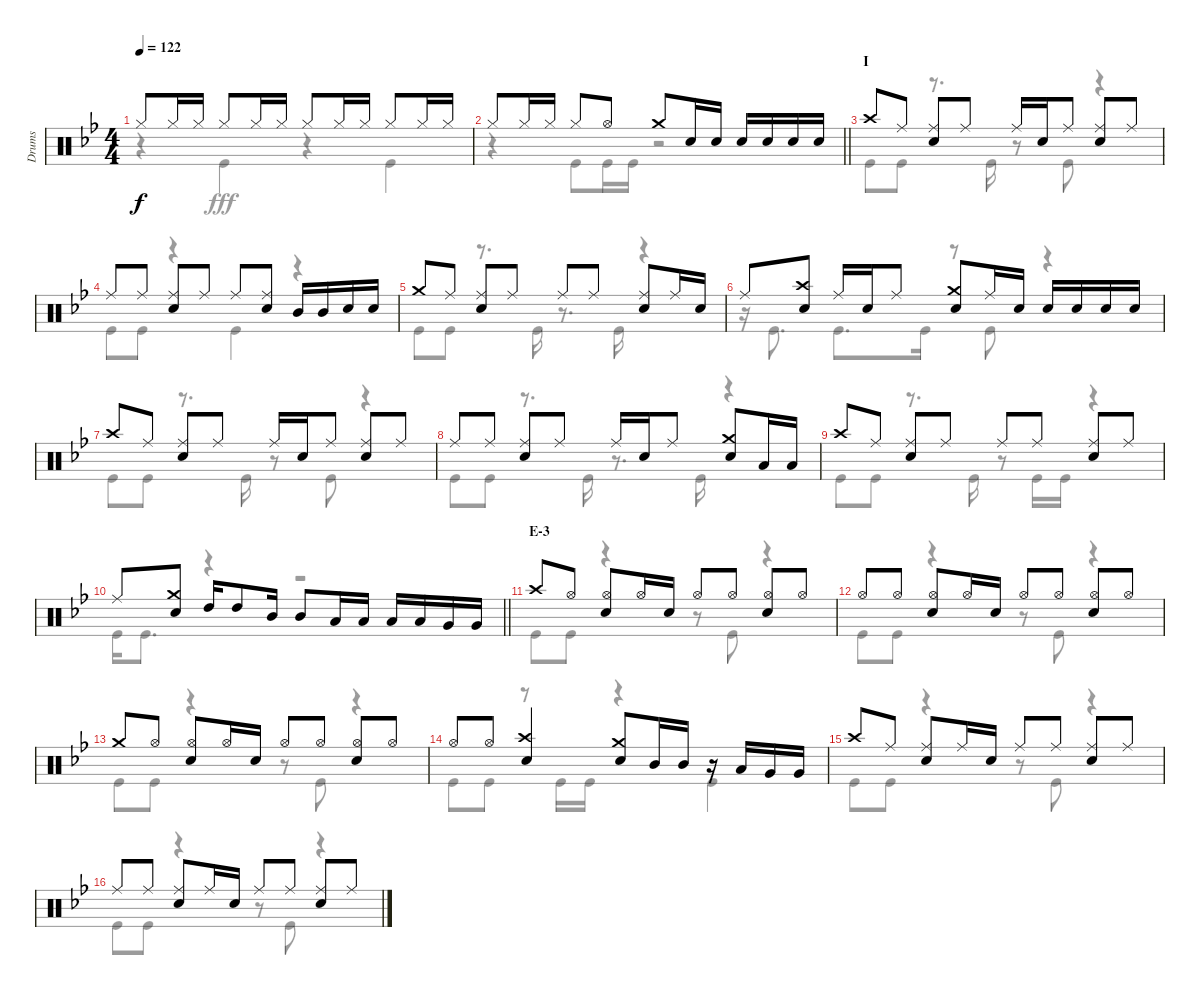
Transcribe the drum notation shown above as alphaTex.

\track ("Drums" "Drums") {instrument percussion}
\staff {score}
\articulation defaults
\voice
\ts (4 4)
\tempo 122
\clef neutral
\ks bb "Hi-Hat (closed)".8{dy f} "Hi-Hat (closed)".16 "Hi-Hat (closed)".16 "Hi-Hat (closed)".8 "Hi-Hat (closed)".16 "Hi-Hat (closed)".16 "Hi-Hat (closed)".8 "Hi-Hat (closed)".16 "Hi-Hat (closed)".16 "Hi-Hat (closed)".8 "Hi-Hat (closed)".16 "Hi-Hat (closed)".16
|
\barLineRight lightlight "Hi-Hat (closed)".8 "Hi-Hat (closed)".16 "Hi-Hat (closed)".16 "Hi-Hat (closed)".8 "Hi-Hat (open)".8 "Crash medium (hit)".8 "Snare (hit) 2".16 "Snare (hit) 2".16 "Snare (hit) 2".16 "Snare (hit) 2".16 "Snare (hit) 2".16 "Snare (hit) 2".16
|
\section ("" "I")
"Crash high (hit)".8 "Ride (middle)".8 ("Ride (middle)" "Snare (hit) 2").8 "Ride (middle)".8 "Ride (middle)".16 "Snare (hit) 2".16 "Ride (middle)".8 ("Ride (middle)" "Snare (hit) 2").8 "Ride (middle)".8 |
"Ride (middle)".8 "Ride (middle)".8 ("Ride (middle)" "Snare (hit) 2").8 "Ride (middle)".8 "Ride (middle)".8 ("Ride (middle)" "Snare (hit) 2").8 "Mid Tom (hit)".16 "Mid Tom (hit)".16 "Snare (hit) 2".16 "Snare (hit) 2".16 |
"Crash medium (hit)".8 "Ride (middle)".8 ("Ride (middle)" "Snare (hit) 2").8 "Ride (middle)".8 "Ride (middle)".8 "Ride (middle)".8 ("Ride (middle)" "Snare (hit) 2").8 "Ride (middle)".16 "Snare (hit) 2".16 |
"Ride (middle)".8 ("Crash high (hit)" "Snare (hit) 2").8 "Ride (middle)".16 "Snare (hit) 2".16 "Ride (middle)".8 ("Crash medium (hit)" "Snare (hit) 2").8 "Ride (middle)".16 "Snare (hit) 2".16 "Snare (hit) 2".16 "Snare (hit) 2".16 "Snare (hit) 2".16 "Snare (hit) 2".16 |
"Crash high (hit)".8 "Ride (middle)".8 ("Ride (middle)" "Snare (hit) 2").8 "Ride (middle)".8 "Ride (middle)".16 "Snare (hit) 2".16 "Ride (middle)".8 ("Ride (middle)" "Snare (hit) 2").8 "Ride (middle)".8 |
"Ride (middle)".8 "Ride (middle)".8 ("Ride (middle)" "Snare (hit) 2").8 "Ride (middle)".8 "Ride (middle)".16 "Snare (hit) 2".16 "Ride (middle)".8 ("Crash medium (hit)" "Snare (hit) 2").8 "Low Tom (hit)".16 "Low Tom (hit)".16 |
"Crash high (hit)".8 "Ride (middle)".8 ("Ride (middle)" "Snare (hit) 2").8 "Ride (middle)".8 "Ride (middle)".8 "Ride (middle)".8 ("Ride (middle)" "Snare (hit) 2").8 "Ride (middle)".8 |
\barLineRight lightlight "Ride (middle)".8
("Crash medium (hit)" "Snare (hit) 2").8 "High Tom (hit)".16 "High Tom (hit)".8 "Mid Tom (hit)".16 "Mid Tom (hit)".8 "Low Tom (hit)".16 "Low Tom (hit)".16 "Low Tom (hit)".16 "Low Tom (hit)".16 "Very Low Tom (hit)".16 "Very Low Tom (hit)".16 |
\section ("" "E-3")
"Crash high (hit)".8 "Hi-Hat (open)".8 ("Hi-Hat (open)" "Snare (hit) 2").8 "Hi-Hat (open)".16 "Snare (hit) 2".16 "Hi-Hat (open)".8 "Hi-Hat (open)".8 ("Hi-Hat (open)" "Snare (hit) 2").8 "Hi-Hat (open)".8 |
"Hi-Hat (open)".8 "Hi-Hat (open)".8 ("Hi-Hat (open)" "Snare (hit) 2").8 "Hi-Hat (open)".16 "Snare (hit) 2".16 "Hi-Hat (open)".8 "Hi-Hat (open)".8 ("Hi-Hat (open)" "Snare (hit) 2").8 "Hi-Hat (open)".8 |
"Crash medium (hit)".8 "Hi-Hat (open)".8 ("Hi-Hat (open)" "Snare (hit) 2").8 "Hi-Hat (open)".16 "Snare (hit) 2".16 "Hi-Hat (open)".8 "Hi-Hat (open)".8 ("Hi-Hat (open)" "Snare (hit) 2").8 "Hi-Hat (open)".8 |
"Hi-Hat (open)".8 "Hi-Hat (open)".8 ("Crash high (hit)" "Snare (hit) 2").4 ("Crash medium (hit)" "Snare (hit) 2").8 "Mid Tom (hit)".16 "Mid Tom (hit)".16 r.16 "Low Tom (hit)".16 "Very Low Tom (hit)".16 "Very Low Tom (hit)".16 |
"Crash high (hit)".8 "Ride (middle)".8 ("Ride (middle)" "Snare (hit) 2").8 "Ride (middle)".16 "Snare (hit) 2".16 "Ride (middle)".8 "Ride (middle)".8 ("Ride (middle)" "Snare (hit) 2").8 "Ride (middle)".8 |
"Ride (middle)".8 "Ride (middle)".8 ("Ride (middle)" "Snare (hit) 2").8 "Ride (middle)".16 "Snare (hit) 2".16 "Ride (middle)".8 "Ride (middle)".8 ("Ride (middle)" "Snare (hit) 2").8 "Ride (middle)".8
\voice
\clef neutral
\ottava regular
\simile none
\ks bb
r.4{dy fff} "Kick (hit)".4 r.4 "Kick (hit)".4 |
\barLineRight lightlight
r.4 "Kick (hit)".8 "Kick (hit)".16 "Kick (hit)".16 r.2 |
"Kick (hit)".8 "Kick (hit)".8 r.8{d} "Kick (hit)".16 r.8 "Kick (hit)".8 r.4 |
"Kick (hit)".8 "Kick (hit)".8 r.4 "Kick (hit)".4 r.4 |
"Kick (hit)".8 "Kick (hit)".8 r.8{d} "Kick (hit)".16 r.8{d} "Kick (hit)".16 r.4 |
r.16 "Kick (hit)".8{d} "Kick (hit)".8{d} "Kick (hit)".16 r.8 "Kick (hit)".8 r.4 |
"Kick (hit)".8 "Kick (hit)".8 r.8{d} "Kick (hit)".16 r.8 "Kick (hit)".8 r.4 |
"Kick (hit)".8 "Kick (hit)".8 r.8{d} "Kick (hit)".16 r.8{d} "Kick (hit)".16 r.4 |
"Kick (hit)".8 "Kick (hit)".8 r.8{d} "Kick (hit)".16 r.8 "Kick (hit)".16 "Kick (hit)".16 r.4 |
\barLineRight lightlight "Kick (hit)".16 "Kick (hit)".8{d}
r.4 r.2 |
"Kick (hit)".8 "Kick (hit)".8 r.4 r.8 "Kick (hit)".8 r.4 |
"Kick (hit)".8 "Kick (hit)".8 r.4 r.8 "Kick (hit)".8 r.4 |
"Kick (hit)".8 "Kick (hit)".8 r.4 r.8 "Kick (hit)".8 r.4 |
"Kick (hit)".8 "Kick (hit)".8 r.8 "Kick (hit)".16 "Kick (hit)".16 r.4 "Kick (hit)".4 |
"Kick (hit)".8 "Kick (hit)".8 r.4 r.8 "Kick (hit)".8 r.4 |
"Kick (hit)".8 "Kick (hit)".8 r.4 r.8 "Kick (hit)".8 r.4
